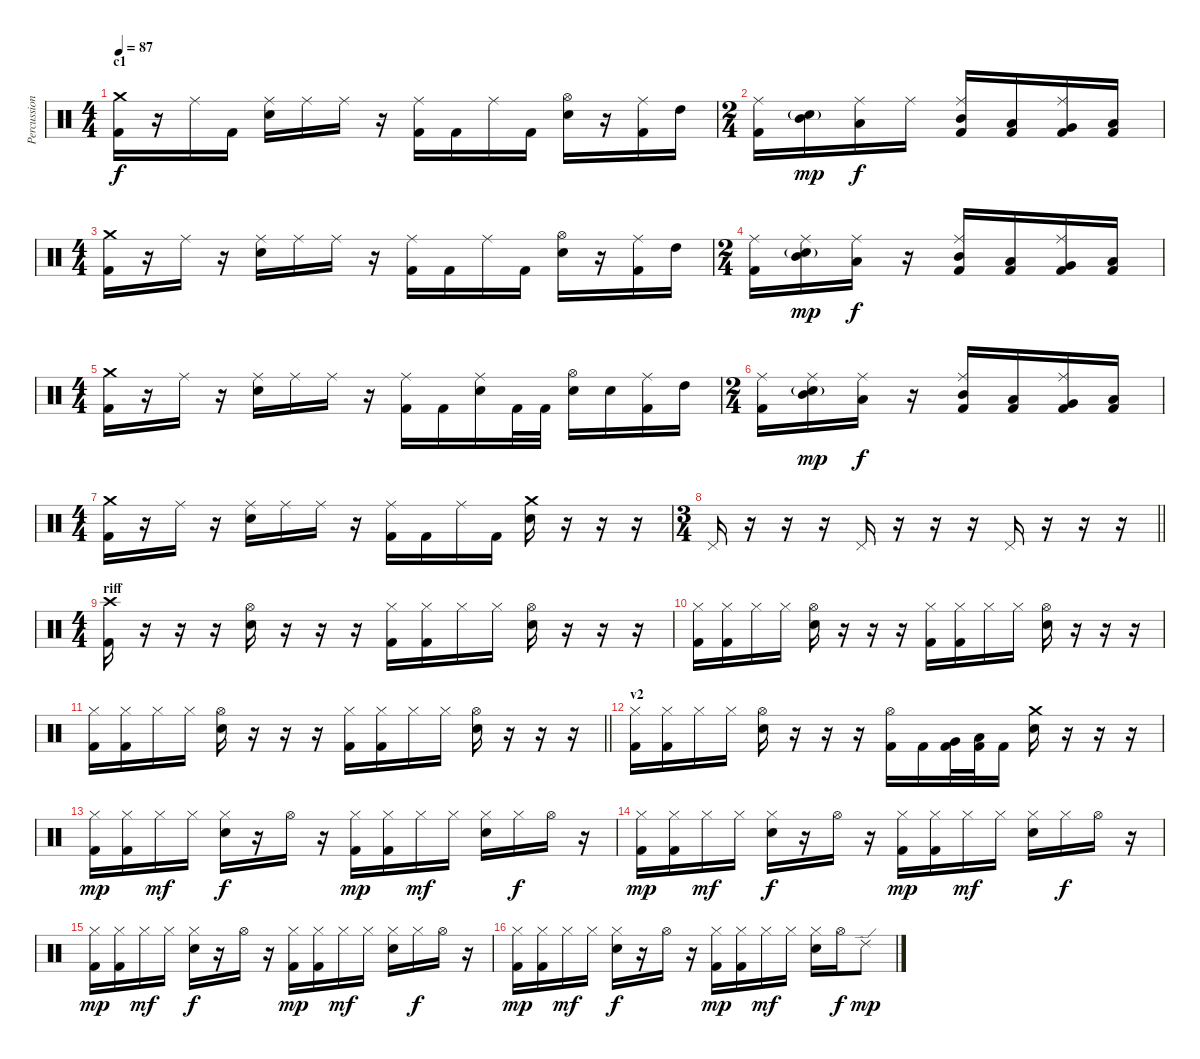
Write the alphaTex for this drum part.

\track ("Percussion" "Percussion") {instrument percussion}
\staff {score}
\articulation defaults
\ts (4 4)
\section ("" "c1")
\tempo 87
\clef neutral
\ks c
("Crash medium (hit)" "Kick (hit) 2").16{dy f} r.16 "Ride (middle)".16 "Kick (hit) 2".16 ("Ride (middle)" "Electric Snare (hit)").16 "Ride (middle)".16 "Ride (middle)".16 r.16 ("Ride (middle)" "Kick (hit) 2").16 "Kick (hit) 2".16 "Ride (middle)".16 "Kick (hit) 2".16 ("Hi-Hat (open)" "Electric Snare (hit)").16 r.16 ("Ride (middle)" "Kick (hit) 2").16 "High Tom (hit)".16 |
\ts (2 4)
("Ride (middle)" "Kick (hit) 2").16 ("Mid Tom (hit)" "Electric Snare (hit)"{g}).16{dy mp} ("Ride (middle)" "Low Tom (hit)").16{dy f} "Ride (middle)".16 ("Ride (middle)" "Mid Tom (hit)" "Kick (hit) 2").16 ("Low Tom (hit)" "Kick (hit) 2").16 ("Ride (middle)" "Very Low Tom (hit)" "Kick (hit) 2").16 ("Low Tom (hit)" "Kick (hit) 2").16 |
\ts (4 4)
("Crash medium (hit)" "Kick (hit) 2").16 r.16 "Ride (middle)".16 r.16 ("Ride (middle)" "Electric Snare (hit)").16 "Ride (middle)".16 "Ride (middle)".16 r.16 ("Ride (middle)" "Kick (hit) 2").16 "Kick (hit) 2".16 "Ride (middle)".16 "Kick (hit) 2".16 ("Hi-Hat (open)" "Electric Snare (hit)").16 r.16 ("Ride (middle)" "Kick (hit) 2").16 "High Tom (hit)".16 |
\ts (2 4)
("Ride (middle)" "Kick (hit) 2").16 ("Ride (middle)" "Mid Tom (hit)" "Electric Snare (hit)"{g}).16{dy mp} ("Ride (middle)" "Low Tom (hit)").16{dy f} r.16 ("Ride (middle)" "Mid Tom (hit)" "Kick (hit) 2").16 ("Low Tom (hit)" "Kick (hit) 2").16 ("Ride (middle)" "Very Low Tom (hit)" "Kick (hit) 2").16 ("Low Tom (hit)" "Kick (hit) 2").16 |
\ts (4 4)
("Crash medium (hit)" "Kick (hit) 2").16 r.16 "Ride (middle)".16 r.16 ("Ride (middle)" "Electric Snare (hit)").16 "Ride (middle)".16 "Ride (middle)".16 r.16 ("Ride (middle)" "Kick (hit) 2").16 "Kick (hit) 2".16 ("Ride (middle)" "Electric Snare (hit)").16 "Kick (hit) 2".32 "Kick (hit) 2".32 ("Hi-Hat (open)" "Electric Snare (hit)").16 "Electric Snare (hit)".16 ("Ride (middle)" "Kick (hit) 2").16 "High Tom (hit)".16 |
\ts (2 4)
("Ride (middle)" "Kick (hit) 2").16 ("Ride (middle)" "Mid Tom (hit)" "Electric Snare (hit)"{g}).16{dy mp} ("Ride (middle)" "Low Tom (hit)").16{dy f} r.16 ("Ride (middle)" "Mid Tom (hit)" "Kick (hit) 2").16 ("Low Tom (hit)" "Kick (hit) 2").16 ("Ride (middle)" "Very Low Tom (hit)" "Kick (hit) 2").16 ("Low Tom (hit)" "Kick (hit) 2").16 |
\ts (4 4)
("Crash medium (hit)" "Kick (hit) 2").16 r.16 "Ride (middle)".16 r.16 ("Ride (middle)" "Electric Snare (hit)").16 "Ride (middle)".16 "Ride (middle)".16 r.16 ("Ride (middle)" "Kick (hit) 2").16 "Kick (hit) 2".16 "Ride (middle)".16 "Kick (hit) 2".16 ("Crash medium (hit)" "Electric Snare (hit)").16 r.16 r.16 r.16 |
\ts (3 4)
\barLineRight lightlight "Pedal Hi-Hat (hit)".16
r.16 r.16 r.16 "Pedal Hi-Hat (hit)".16 r.16 r.16 r.16 "Pedal Hi-Hat (hit)".16 r.16 r.16 r.16 |
\ts (4 4)
\section ("" "riff")
("Crash high (hit)" "Kick (hit) 2").16 r.16 r.16 r.16 ("Hi-Hat (open)" "Electric Snare (hit)").16 r.16 r.16 r.16 ("Hi-Hat (closed)" "Kick (hit) 2").16 ("Hi-Hat (closed)" "Kick (hit) 2").16 "Hi-Hat (closed)".16 "Hi-Hat (closed)".16 ("Hi-Hat (open)" "Electric Snare (hit)").16 r.16 r.16 r.16 |
("Hi-Hat (closed)" "Kick (hit) 2").16 ("Hi-Hat (closed)" "Kick (hit) 2").16 "Hi-Hat (closed)".16 "Hi-Hat (closed)".16 ("Hi-Hat (open)" "Electric Snare (hit)").16 r.16 r.16 r.16 ("Hi-Hat (closed)" "Kick (hit) 2").16 ("Hi-Hat (closed)" "Kick (hit) 2").16 "Hi-Hat (closed)".16 "Hi-Hat (closed)".16 ("Hi-Hat (open)" "Electric Snare (hit)").16 r.16 r.16 r.16 |
\barLineRight lightlight
("Hi-Hat (closed)" "Kick (hit) 2").16 ("Hi-Hat (closed)" "Kick (hit) 2").16 "Hi-Hat (closed)".16 "Hi-Hat (closed)".16 ("Hi-Hat (open)" "Electric Snare (hit)").16 r.16 r.16 r.16 ("Hi-Hat (closed)" "Kick (hit) 2").16 ("Hi-Hat (closed)" "Kick (hit) 2").16 "Hi-Hat (closed)".16 "Hi-Hat (closed)".16 ("Hi-Hat (open)" "Electric Snare (hit)").16 r.16 r.16 r.16 |
\section ("" "v2")
("Hi-Hat (closed)" "Kick (hit) 2").16 ("Hi-Hat (closed)" "Kick (hit) 2").16 "Hi-Hat (closed)".16 "Hi-Hat (closed)".16 ("Hi-Hat (open)" "Electric Snare (hit)").16 r.16 r.16 r.16 ("Hi-Hat (open)" "Kick (hit) 2").16 "Kick (hit) 2".16 ("Very Low Tom (hit)" "Kick (hit) 2").32 ("Low Floor Tom (hit)" "Kick (hit) 2").32 "Kick (hit) 2".16 ("Crash medium (hit)" "Electric Snare (hit)").16 r.16 r.16 r.16 |
("Hi-Hat (closed)" "Kick (hit) 2").16{dy mp} ("Hi-Hat (closed)" "Kick (hit) 2").16 "Hi-Hat (closed)".16{dy mf} "Hi-Hat (closed)".16 ("Hi-Hat (closed)" "Electric Snare (hit)").16{dy f} r.16 "Hi-Hat (open)".16 r.16 ("Hi-Hat (closed)" "Kick (hit) 2").16{dy mp} ("Hi-Hat (closed)" "Kick (hit) 2").16 "Hi-Hat (closed)".16{dy mf} "Hi-Hat (closed)".16 ("Hi-Hat (closed)" "Electric Snare (hit)").16 "Hi-Hat (closed)".16{dy f} "Hi-Hat (open)".16 r.16 |
("Hi-Hat (closed)" "Kick (hit) 2").16{dy mp} ("Hi-Hat (closed)" "Kick (hit) 2").16 "Hi-Hat (closed)".16{dy mf} "Hi-Hat (closed)".16 ("Hi-Hat (closed)" "Electric Snare (hit)").16{dy f} r.16 "Hi-Hat (open)".16 r.16 ("Hi-Hat (closed)" "Kick (hit) 2").16{dy mp} ("Hi-Hat (closed)" "Kick (hit) 2").16 "Hi-Hat (closed)".16{dy mf} "Hi-Hat (closed)".16 ("Hi-Hat (closed)" "Electric Snare (hit)").16 "Hi-Hat (closed)".16{dy f} "Hi-Hat (open)".16 r.16 |
("Hi-Hat (closed)" "Kick (hit) 2").16{dy mp} ("Hi-Hat (closed)" "Kick (hit) 2").16 "Hi-Hat (closed)".16{dy mf} "Hi-Hat (closed)".16 ("Hi-Hat (closed)" "Electric Snare (hit)").16{dy f} r.16 "Hi-Hat (open)".16 r.16 ("Hi-Hat (closed)" "Kick (hit) 2").16{dy mp} ("Hi-Hat (closed)" "Kick (hit) 2").16 "Hi-Hat (closed)".16{dy mf} "Hi-Hat (closed)".16 ("Hi-Hat (closed)" "Electric Snare (hit)").16 "Hi-Hat (closed)".16{dy f} "Hi-Hat (open)".16 r.16 |
("Hi-Hat (closed)" "Kick (hit) 2").16{dy mp} ("Hi-Hat (closed)" "Kick (hit) 2").16 "Hi-Hat (closed)".16{dy mf} "Hi-Hat (closed)".16 ("Hi-Hat (closed)" "Electric Snare (hit)").16{dy f} r.16 "Hi-Hat (open)".16 r.16 ("Hi-Hat (closed)" "Kick (hit) 2").16{dy mp} ("Hi-Hat (closed)" "Kick (hit) 2").16 "Hi-Hat (closed)".16{dy mf} "Hi-Hat (closed)".16 ("Hi-Hat (closed)" "Electric Snare (hit)").16 "Hi-Hat (open)".16{dy f} "Ride (edge) 2".8{dy mp}
